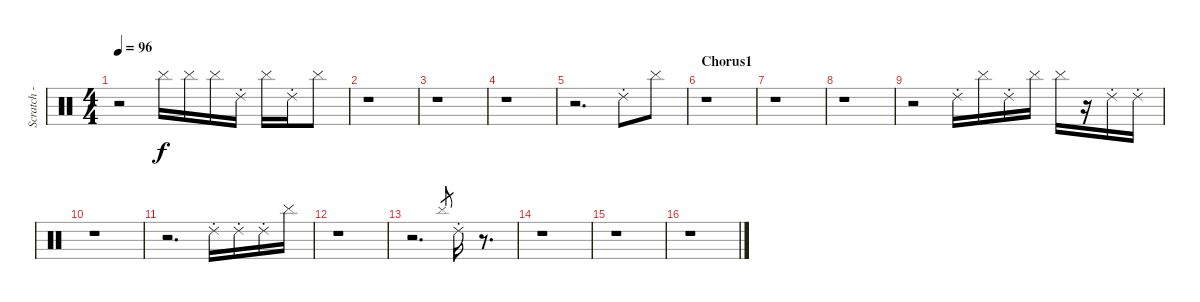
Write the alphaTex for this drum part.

\track ("Scratch - ???" "Scratch - ") {instrument percussion}
\staff {score}
\articulation defaults
\ts (4 4)
\tempo 96
\clef neutral
\ks c
r.2{dy f} "Cymbal (hit)".16 "Cymbal (hit)".16 "Cymbal (hit)".16 "Ride (choke) 2".16 "Cymbal (hit)".16 "Ride (choke) 2".16 "Cymbal (hit)".8 |
r.1 |
r.1 |
r.1 |
r.2{d} "Ride (choke) 2".8 "Cymbal (hit)".8 |
\section ("" "Chorus1")
r.1 |
r.1 |
r.1 |
r.2 "Ride (choke) 2".16 "Cymbal (hit)".16 "Ride (choke) 2".16 "Cymbal (hit)".16 "Cymbal (hit)".16 r.16 "Ride (choke) 2".16 "Ride (choke) 2".16 |
r.1 |
r.2{d} "Ride (choke) 2".16 "Ride (choke) 2".16 "Ride (choke) 2".16 "Cymbal (hit)".16 |
r.1 |
r.2{d} "Cymbal (hit)".8{gr} "Ride (choke) 2".16 r.8{d} |
r.1 |
r.1 |
r.1
